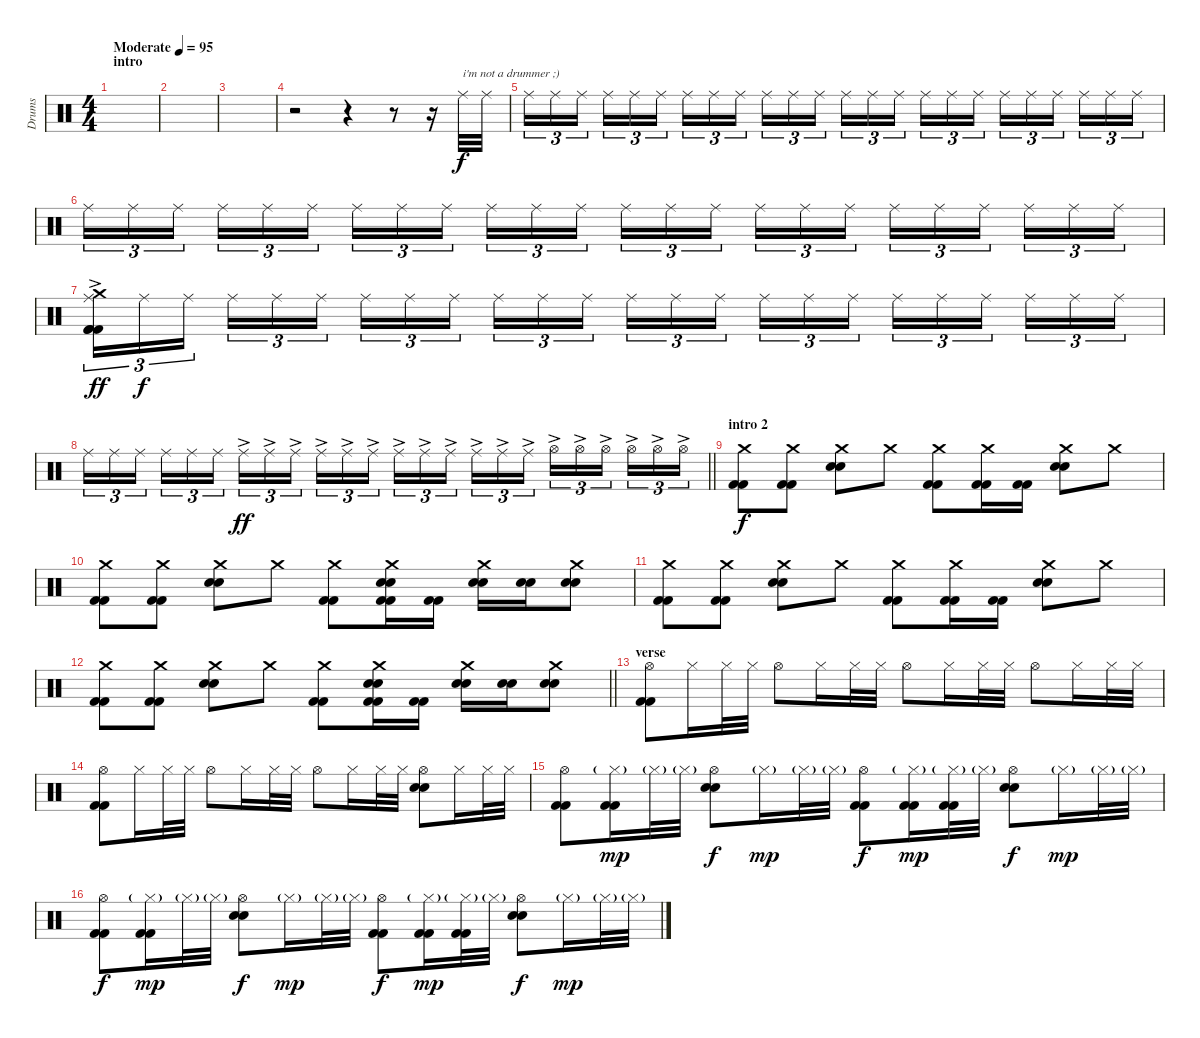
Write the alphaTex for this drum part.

\track ("Drums" "Drums") {instrument percussion}
\staff {score}
\articulation defaults
\ts (4 4)
\section ("" "intro")
\tempo (95 "Moderate")
\clef neutral
\ks c
|
|
|
r.2 r.4 r.8 r.16 "Ride (middle)".32{txt "i'm not a drummer ;)"} "Ride (middle)".32 |
"Ride (middle)".16{tu (3 2)} "Ride (middle)".16{tu (3 2)} "Ride (middle)".16{tu (3 2) beam splitsecondary} "Ride (middle)".16{tu (3 2)} "Ride (middle)".16{tu (3 2)} "Ride (middle)".16{tu (3 2)} "Ride (middle)".16{tu (3 2)} "Ride (middle)".16{tu (3 2)} "Ride (middle)".16{tu (3 2) beam splitsecondary} "Ride (middle)".16{tu (3 2)} "Ride (middle)".16{tu (3 2)} "Ride (middle)".16{tu (3 2)} "Ride (middle)".16{tu (3 2)} "Ride (middle)".16{tu (3 2)} "Ride (middle)".16{tu (3 2) beam splitsecondary} "Ride (middle)".16{tu (3 2)} "Ride (middle)".16{tu (3 2)} "Ride (middle)".16{tu (3 2)} "Ride (middle)".16{tu (3 2)} "Ride (middle)".16{tu (3 2)} "Ride (middle)".16{tu (3 2) beam splitsecondary} "Ride (middle)".16{tu (3 2)} "Ride (middle)".16{tu (3 2)} "Ride (middle)".16{tu (3 2)} |
"Ride (middle)".16{tu (3 2)} "Ride (middle)".16{tu (3 2)} "Ride (middle)".16{tu (3 2) beam splitsecondary} "Ride (middle)".16{tu (3 2)} "Ride (middle)".16{tu (3 2)} "Ride (middle)".16{tu (3 2)} "Ride (middle)".16{tu (3 2)} "Ride (middle)".16{tu (3 2)} "Ride (middle)".16{tu (3 2) beam splitsecondary} "Ride (middle)".16{tu (3 2)} "Ride (middle)".16{tu (3 2)} "Ride (middle)".16{tu (3 2)} "Ride (middle)".16{tu (3 2)} "Ride (middle)".16{tu (3 2)} "Ride (middle)".16{tu (3 2) beam splitsecondary} "Ride (middle)".16{tu (3 2)} "Ride (middle)".16{tu (3 2)} "Ride (middle)".16{tu (3 2)} "Ride (middle)".16{tu (3 2)} "Ride (middle)".16{tu (3 2)} "Ride (middle)".16{tu (3 2) beam splitsecondary} "Ride (middle)".16{tu (3 2)} "Ride (middle)".16{tu (3 2)} "Ride (middle)".16{tu (3 2)} |
("Ride (middle)" "Crash medium (hit)" "Kick (hit) 2" "Kick (hit) 2" "Kick (hit) 2"{ac}).16{tu (3 2) dy ff} "Ride (middle)".16{tu (3 2) dy f} "Ride (middle)".16{tu (3 2) beam splitsecondary} "Ride (middle)".16{tu (3 2)} "Ride (middle)".16{tu (3 2)} "Ride (middle)".16{tu (3 2)} "Ride (middle)".16{tu (3 2)} "Ride (middle)".16{tu (3 2)} "Ride (middle)".16{tu (3 2) beam splitsecondary} "Ride (middle)".16{tu (3 2)} "Ride (middle)".16{tu (3 2)} "Ride (middle)".16{tu (3 2)} "Ride (middle)".16{tu (3 2)} "Ride (middle)".16{tu (3 2)} "Ride (middle)".16{tu (3 2) beam splitsecondary} "Ride (middle)".16{tu (3 2)} "Ride (middle)".16{tu (3 2)} "Ride (middle)".16{tu (3 2)} "Ride (middle)".16{tu (3 2)} "Ride (middle)".16{tu (3 2)} "Ride (middle)".16{tu (3 2) beam splitsecondary} "Ride (middle)".16{tu (3 2)} "Ride (middle)".16{tu (3 2)} "Ride (middle)".16{tu (3 2)} |
\barLineRight lightlight "Ride (middle)".16{tu (3 2)} "Ride (middle)".16{tu (3 2)} "Ride (middle)".16{tu (3 2) beam splitsecondary} "Ride (middle)".16{tu (3 2)} "Ride (middle)".16{tu (3 2)} "Ride (middle)".16{tu (3 2)} "Ride (middle)"{ac}.16{tu (3 2) dy ff} "Ride (middle)"{ac}.16{tu (3 2)} "Ride (middle)"{ac}.16{tu (3 2) beam splitsecondary} "Ride (middle)"{ac}.16{tu (3 2)} "Ride (middle)"{ac}.16{tu (3 2)} "Ride (middle)"{ac}.16{tu (3 2)} "Ride (middle)"{ac}.16{tu (3 2)} "Ride (middle)"{ac}.16{tu (3 2)} "Ride (middle)"{ac}.16{tu (3 2) beam splitsecondary} "Ride (middle)"{ac}.16{tu (3 2)} "Ride (middle)"{ac}.16{tu (3 2)} "Ride (middle)"{ac}.16{tu (3 2)} "Hi-Hat (open)"{ac}.16{tu (3 2)} "Hi-Hat (open)"{ac}.16{tu (3 2)} "Hi-Hat (open)"{ac}.16{tu (3 2) beam splitsecondary} "Hi-Hat (open)"{ac}.16{tu (3 2)} "Hi-Hat (open)"{ac}.16{tu (3 2)} "Hi-Hat (open)"{ac}.16{tu (3 2)}
|
\section ("" "intro 2")
("Crash medium (hit)" "Kick (hit) 2" "Kick (hit) 2").8{dy f} ("Crash medium (hit)" "Kick (hit) 2" "Kick (hit) 2").8 ("Crash medium (hit)" "Snare (hit) 2" "Snare (hit) 2").8 "Crash medium (hit)".8 ("Crash medium (hit)" "Kick (hit) 2" "Kick (hit) 2").8 ("Crash medium (hit)" "Kick (hit) 2" "Kick (hit) 2").16 ("Kick (hit) 2" "Kick (hit) 2").16 ("Crash medium (hit)" "Snare (hit) 2" "Snare (hit) 2").8 "Crash medium (hit)".8 |
("Crash medium (hit)" "Kick (hit) 2" "Kick (hit) 2").8 ("Crash medium (hit)" "Kick (hit) 2" "Kick (hit) 2").8 ("Crash medium (hit)" "Snare (hit) 2" "Snare (hit) 2").8 "Crash medium (hit)".8 ("Crash medium (hit)" "Kick (hit) 2" "Kick (hit) 2").8 ("Crash medium (hit)" "Snare (hit) 2" "Snare (hit) 2" "Kick (hit) 2" "Kick (hit) 2").16 ("Kick (hit) 2" "Kick (hit) 2").16 ("Crash medium (hit)" "Snare (hit) 2" "Snare (hit) 2").16 ("Snare (hit) 2" "Snare (hit) 2").16 ("Crash medium (hit)" "Snare (hit) 2" "Snare (hit) 2").8 |
("Crash medium (hit)" "Kick (hit) 2" "Kick (hit) 2").8 ("Crash medium (hit)" "Kick (hit) 2" "Kick (hit) 2").8 ("Crash medium (hit)" "Snare (hit) 2" "Snare (hit) 2").8 "Crash medium (hit)".8 ("Crash medium (hit)" "Kick (hit) 2" "Kick (hit) 2").8 ("Crash medium (hit)" "Kick (hit) 2" "Kick (hit) 2").16 ("Kick (hit) 2" "Kick (hit) 2").16 ("Crash medium (hit)" "Snare (hit) 2" "Snare (hit) 2").8 "Crash medium (hit)".8 |
\barLineRight lightlight
("Crash medium (hit)" "Kick (hit) 2" "Kick (hit) 2").8 ("Crash medium (hit)" "Kick (hit) 2" "Kick (hit) 2").8 ("Crash medium (hit)" "Snare (hit) 2" "Snare (hit) 2").8 "Crash medium (hit)".8 ("Crash medium (hit)" "Kick (hit) 2" "Kick (hit) 2").8 ("Crash medium (hit)" "Snare (hit) 2" "Snare (hit) 2" "Kick (hit) 2" "Kick (hit) 2").16 ("Kick (hit) 2" "Kick (hit) 2").16 ("Crash medium (hit)" "Snare (hit) 2" "Snare (hit) 2").16 ("Snare (hit) 2" "Snare (hit) 2").16 ("Crash medium (hit)" "Snare (hit) 2" "Snare (hit) 2").8 |
\section ("" "verse")
("Hi-Hat (open)" "Kick (hit) 2" "Kick (hit) 2").8 "Hi-Hat (closed)".16 "Hi-Hat (closed)".32 "Hi-Hat (closed)".32 "Hi-Hat (open)".8 "Hi-Hat (closed)".16 "Hi-Hat (closed)".32 "Hi-Hat (closed)".32 "Hi-Hat (open)".8 "Hi-Hat (closed)".16 "Hi-Hat (closed)".32 "Hi-Hat (closed)".32 "Hi-Hat (open)".8 "Hi-Hat (closed)".16 "Hi-Hat (closed)".32 "Hi-Hat (closed)".32 |
("Hi-Hat (open)" "Kick (hit) 2" "Kick (hit) 2").8 "Hi-Hat (closed)".16 "Hi-Hat (closed)".32 "Hi-Hat (closed)".32 "Hi-Hat (open)".8 "Hi-Hat (closed)".16 "Hi-Hat (closed)".32 "Hi-Hat (closed)".32 "Hi-Hat (open)".8 "Hi-Hat (closed)".16 "Hi-Hat (closed)".32 "Hi-Hat (closed)".32 ("Hi-Hat (open)" "Snare (hit) 2" "Snare (hit) 2").8 "Hi-Hat (closed)".16 "Hi-Hat (closed)".32 "Hi-Hat (closed)".32 |
("Hi-Hat (open)" "Kick (hit) 2" "Kick (hit) 2").8 ("Hi-Hat (closed)"{g} "Kick (hit) 2" "Kick (hit) 2").16{dy mp} "Hi-Hat (closed)"{g}.32 "Hi-Hat (closed)"{g}.32 ("Hi-Hat (open)" "Snare (hit) 2" "Snare (hit) 2").8{dy f} "Hi-Hat (closed)"{g}.16{dy mp} "Hi-Hat (closed)"{g}.32 "Hi-Hat (closed)"{g}.32 ("Hi-Hat (open)" "Kick (hit) 2" "Kick (hit) 2").8{dy f} ("Hi-Hat (closed)"{g} "Kick (hit) 2" "Kick (hit) 2").16{dy mp} ("Hi-Hat (closed)"{g} "Kick (hit) 2" "Kick (hit) 2").32 "Hi-Hat (closed)"{g}.32 ("Hi-Hat (open)" "Snare (hit) 2" "Snare (hit) 2").8{dy f} "Hi-Hat (closed)"{g}.16{dy mp} "Hi-Hat (closed)"{g}.32 "Hi-Hat (closed)"{g}.32 |
("Hi-Hat (open)" "Kick (hit) 2" "Kick (hit) 2").8{dy f} ("Hi-Hat (closed)"{g} "Kick (hit) 2" "Kick (hit) 2").16{dy mp} "Hi-Hat (closed)"{g}.32 "Hi-Hat (closed)"{g}.32 ("Hi-Hat (open)" "Snare (hit) 2" "Snare (hit) 2").8{dy f} "Hi-Hat (closed)"{g}.16{dy mp} "Hi-Hat (closed)"{g}.32 "Hi-Hat (closed)"{g}.32 ("Hi-Hat (open)" "Kick (hit) 2" "Kick (hit) 2").8{dy f} ("Hi-Hat (closed)"{g} "Kick (hit) 2" "Kick (hit) 2").16{dy mp} ("Hi-Hat (closed)"{g} "Kick (hit) 2" "Kick (hit) 2").32 "Hi-Hat (closed)"{g}.32 ("Hi-Hat (open)" "Snare (hit) 2" "Snare (hit) 2").8{dy f} "Hi-Hat (closed)"{g}.16{dy mp} "Hi-Hat (closed)"{g}.32 "Hi-Hat (closed)"{g}.32
